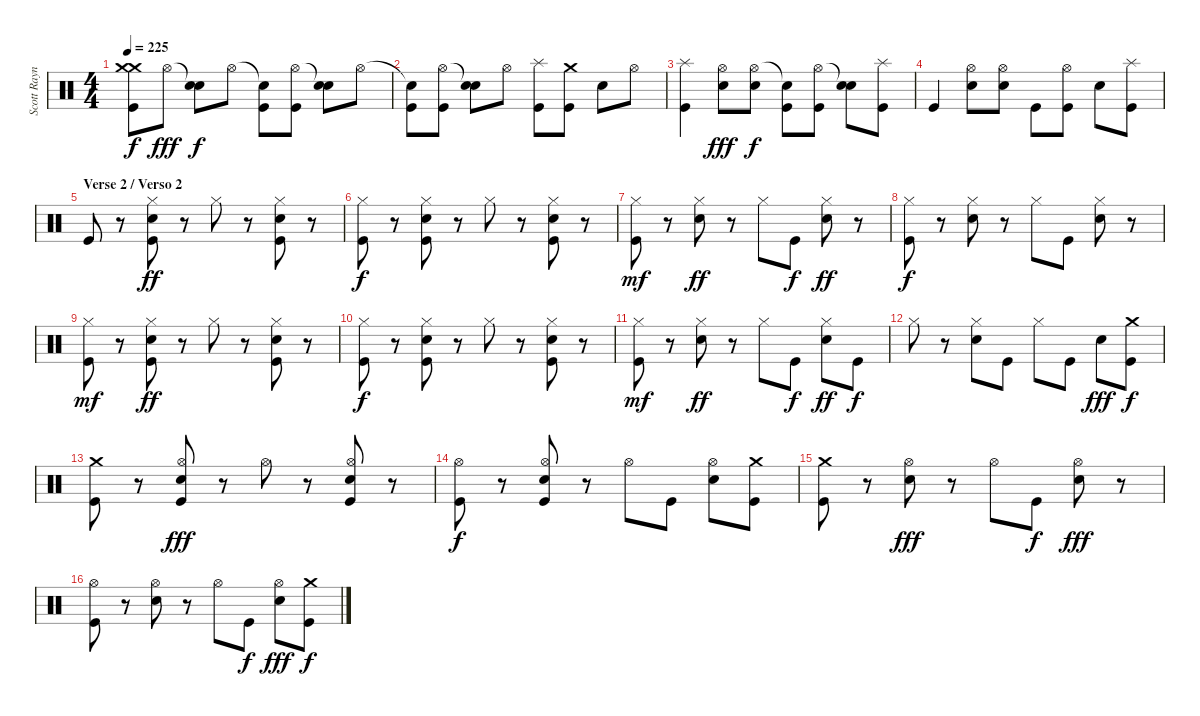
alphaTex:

\track ("Scott Raynor - Drums/Bateria" "Scott Rayn") {instrument percussion}
\staff {score}
\articulation defaults
\ts (4 4)
\tempo 225
\clef neutral
\ks c
("Crash medium (hit)" "Crash medium (hit)" "Kick (hit)").8{dy f} "Hi-Hat (open)".8{dy fff} ("Snare (hit)"{t} "Electric Snare (hit)").8{dy f} "Hi-Hat (open)".8 ("Snare (hit)"{t} "Kick (hit)").8 ("Hi-Hat (open)" "Kick (hit)").8 ("Snare (hit)"{t} "Electric Snare (hit)").8 "Hi-Hat (open)".8 |
("Snare (hit)"{t} "Kick (hit)").8 ("Hi-Hat (open)" "Kick (hit)").8 ("Snare (hit)"{t} "Electric Snare (hit)").8 "Hi-Hat (open)".8 ("Splash (hit)" "Kick (hit)").8 ("Crash medium (hit)" "Kick (hit)").8 "Electric Snare (hit)".8 "Hi-Hat (open)".8 |
("Splash (hit)" "Kick (hit)").4 ("Hi-Hat (open)" "Electric Snare (hit)").8{dy fff} ("Hi-Hat (open)" "Electric Snare (hit)").8{dy f} ("Snare (hit)"{t} "Kick (hit)").8 ("Hi-Hat (open)" "Kick (hit)").8 ("Snare (hit)"{t} "Electric Snare (hit)").8 ("Splash (hit)" "Kick (hit)").8 |
"Kick (hit)".4 ("Hi-Hat (open)" "Electric Snare (hit)").8 ("Hi-Hat (open)" "Electric Snare (hit)").8 "Kick (hit)".8 ("Hi-Hat (open)" "Kick (hit)").8 "Electric Snare (hit)".8 ("Splash (hit)" "Kick (hit)").8 |
\section ("" "Verse 2 / Verso 2")
"Kick (hit)".8 r.8 ("Hi-Hat (closed)" "Electric Snare (hit)" "Kick (hit)").8{dy ff} r.8 "Hi-Hat (closed)".8 r.8 ("Hi-Hat (closed)" "Electric Snare (hit)" "Kick (hit)").8 r.8 |
("Hi-Hat (closed)" "Kick (hit)").8{dy f} r.8 ("Hi-Hat (closed)" "Electric Snare (hit)" "Kick (hit)").8 r.8 "Hi-Hat (closed)".8 r.8 ("Hi-Hat (closed)" "Electric Snare (hit)" "Kick (hit)").8 r.8 |
("Hi-Hat (closed)" "Kick (hit)").8{dy mf} r.8 ("Hi-Hat (closed)" "Electric Snare (hit)").8{dy ff} r.8 "Hi-Hat (closed)".8 "Kick (hit)".8{dy f} ("Hi-Hat (closed)" "Electric Snare (hit)").8{dy ff} r.8 |
("Hi-Hat (closed)" "Kick (hit)").8{dy f} r.8 ("Hi-Hat (closed)" "Electric Snare (hit)").8 r.8 "Hi-Hat (closed)".8 "Kick (hit)".8 ("Hi-Hat (closed)" "Electric Snare (hit)").8 r.8 |
("Hi-Hat (closed)" "Kick (hit)").8{dy mf} r.8 ("Hi-Hat (closed)" "Electric Snare (hit)" "Kick (hit)").8{dy ff} r.8 "Hi-Hat (closed)".8 r.8 ("Hi-Hat (closed)" "Electric Snare (hit)" "Kick (hit)").8 r.8 |
("Hi-Hat (closed)" "Kick (hit)").8{dy f} r.8 ("Hi-Hat (closed)" "Electric Snare (hit)" "Kick (hit)").8 r.8 "Hi-Hat (closed)".8 r.8 ("Hi-Hat (closed)" "Electric Snare (hit)" "Kick (hit)").8 r.8 |
("Hi-Hat (closed)" "Kick (hit)").8{dy mf} r.8 ("Hi-Hat (closed)" "Electric Snare (hit)").8{dy ff} r.8 "Hi-Hat (closed)".8 "Kick (hit)".8{dy f} ("Hi-Hat (closed)" "Electric Snare (hit)").8{dy ff} "Kick (hit)".8{dy f} |
"Hi-Hat (closed)".8 r.8 ("Hi-Hat (closed)" "Electric Snare (hit)").8 "Kick (hit)".8 "Hi-Hat (closed)".8 "Kick (hit)".8 "Electric Snare (hit)".8{dy fff} ("Crash medium (hit)" "Kick (hit)").8{dy f} |
("Crash medium (hit)" "Kick (hit)").8 r.8 ("Hi-Hat (open)" "Electric Snare (hit)" "Kick (hit)").8{dy fff} r.8 "Hi-Hat (open)".8 r.8 ("Hi-Hat (open)" "Electric Snare (hit)" "Kick (hit)").8 r.8 |
("Hi-Hat (open)" "Kick (hit)").8{dy f} r.8 ("Hi-Hat (open)" "Electric Snare (hit)" "Kick (hit)").8 r.8 "Hi-Hat (open)".8 "Kick (hit)".8 ("Hi-Hat (open)" "Electric Snare (hit)").8 ("Crash medium (hit)" "Kick (hit)").8 |
("Crash medium (hit)" "Kick (hit)").8 r.8 ("Hi-Hat (open)" "Electric Snare (hit)").8{dy fff} r.8 "Hi-Hat (open)".8 "Kick (hit)".8{dy f} ("Hi-Hat (open)" "Electric Snare (hit)").8{dy fff} r.8 |
("Hi-Hat (open)" "Kick (hit)").8 r.8 ("Hi-Hat (open)" "Electric Snare (hit)").8 r.8 "Hi-Hat (open)".8 "Kick (hit)".8{dy f} ("Hi-Hat (open)" "Electric Snare (hit)").8{dy fff} ("Crash medium (hit)" "Kick (hit)").8{dy f}
